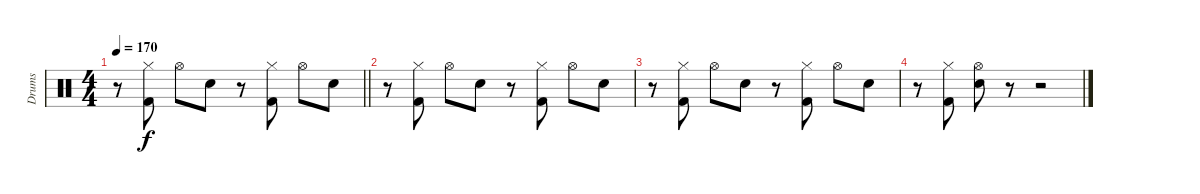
\track ("Drums" "Drums") {instrument percussion}
\staff {score}
\articulation defaults
\ts (4 4)
\tempo 170
\clef neutral
\barLineRight lightlight
\ks c
r.8{dy f} ("Hi-Hat (closed)" "Kick (hit) 2").8 "Hi-Hat (open)".8 "Electric Snare (hit)".8 r.8 ("Hi-Hat (closed)" "Kick (hit) 2").8 "Hi-Hat (open)".8 "Electric Snare (hit)".8 |
r.8 ("Hi-Hat (closed)" "Kick (hit) 2").8 "Hi-Hat (open)".8 "Electric Snare (hit)".8 r.8 ("Hi-Hat (closed)" "Kick (hit) 2").8 "Hi-Hat (open)".8 "Electric Snare (hit)".8 |
r.8 ("Hi-Hat (closed)" "Kick (hit) 2").8 "Hi-Hat (open)".8 "Electric Snare (hit)".8 r.8 ("Hi-Hat (closed)" "Kick (hit) 2").8 "Hi-Hat (open)".8 "Electric Snare (hit)".8 |
r.8 ("Hi-Hat (closed)" "Kick (hit) 2").8 ("Hi-Hat (open)" "Electric Snare (hit)").8 r.8 r.2
